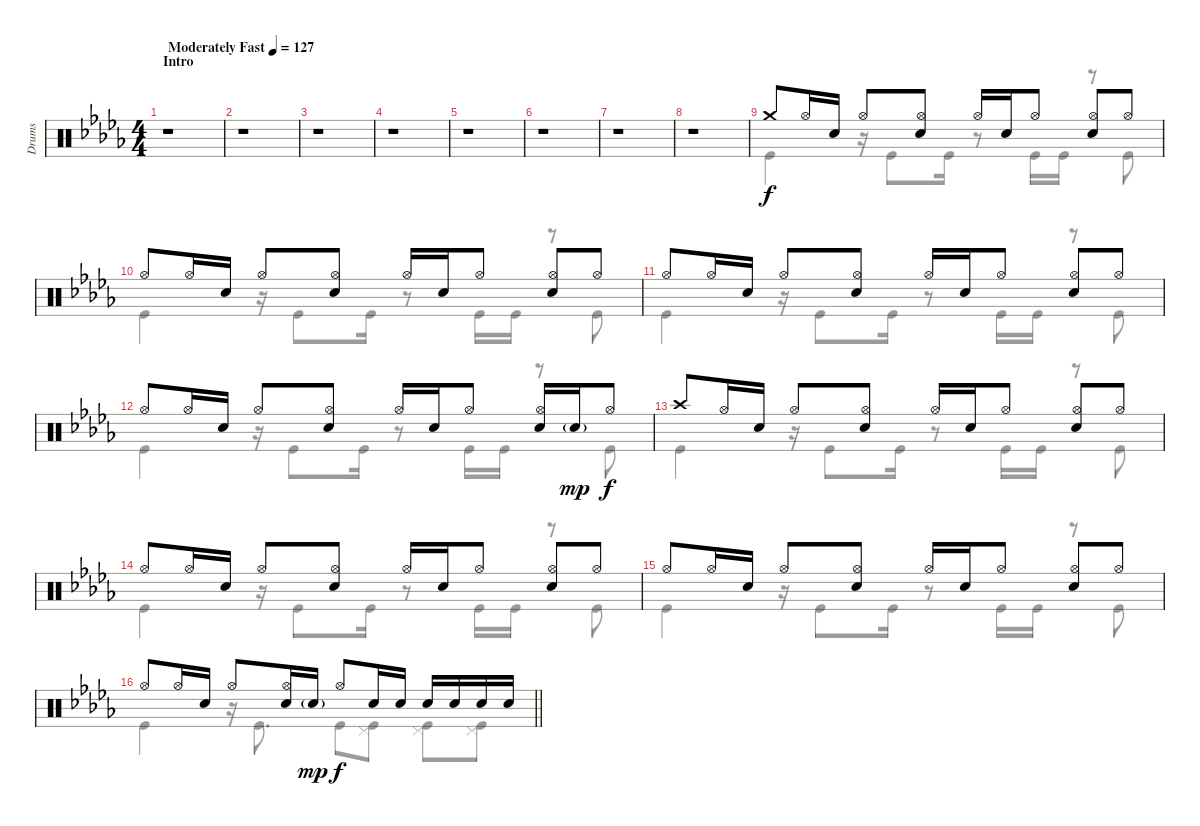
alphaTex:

\track ("Drums" "Drums") {instrument percussion}
\staff {score}
\articulation defaults
\voice
\ts (4 4)
\section ("" "Intro")
\tempo (127 "Moderately Fast")
\clef neutral
\ks bbminor
r.1{dy f} |
r.1 |
r.1 |
r.1 |
r.1 |
r.1 |
r.1 |
r.1 |
"Crash medium (hit)".8 "Hi-Hat (open)".16 "Electric Snare (hit)".16 "Hi-Hat (open)".8 ("Hi-Hat (open)" "Electric Snare (hit)").8 "Hi-Hat (open)".16 "Electric Snare (hit)".16 "Hi-Hat (open)".8 ("Hi-Hat (open)" "Electric Snare (hit)").8 "Hi-Hat (open)".8 |
"Hi-Hat (open)".8 "Hi-Hat (open)".16 "Electric Snare (hit)".16 "Hi-Hat (open)".8 ("Hi-Hat (open)" "Electric Snare (hit)").8 "Hi-Hat (open)".16 "Electric Snare (hit)".16 "Hi-Hat (open)".8 ("Hi-Hat (open)" "Electric Snare (hit)").8 "Hi-Hat (open)".8 |
"Hi-Hat (open)".8 "Hi-Hat (open)".16 "Electric Snare (hit)".16 "Hi-Hat (open)".8 ("Hi-Hat (open)" "Electric Snare (hit)").8 "Hi-Hat (open)".16 "Electric Snare (hit)".16 "Hi-Hat (open)".8 ("Hi-Hat (open)" "Electric Snare (hit)").8 "Hi-Hat (open)".8 |
"Hi-Hat (open)".8 "Hi-Hat (open)".16 "Electric Snare (hit)".16 "Hi-Hat (open)".8 ("Hi-Hat (open)" "Electric Snare (hit)").8 "Hi-Hat (open)".16 "Electric Snare (hit)".16 "Hi-Hat (open)".8 ("Hi-Hat (open)" "Electric Snare (hit)").16 "Electric Snare (hit)"{g}.16{dy mp} "Hi-Hat (open)".8{dy f} |
"Crash high (hit)".8 "Hi-Hat (open)".16 "Electric Snare (hit)".16 "Hi-Hat (open)".8 ("Hi-Hat (open)" "Electric Snare (hit)").8 "Hi-Hat (open)".16 "Electric Snare (hit)".16 "Hi-Hat (open)".8 ("Hi-Hat (open)" "Electric Snare (hit)").8 "Hi-Hat (open)".8 |
"Hi-Hat (open)".8 "Hi-Hat (open)".16 "Electric Snare (hit)".16 "Hi-Hat (open)".8 ("Hi-Hat (open)" "Electric Snare (hit)").8 "Hi-Hat (open)".16 "Electric Snare (hit)".16 "Hi-Hat (open)".8 ("Hi-Hat (open)" "Electric Snare (hit)").8 "Hi-Hat (open)".8 |
"Hi-Hat (open)".8 "Hi-Hat (open)".16 "Electric Snare (hit)".16 "Hi-Hat (open)".8 ("Hi-Hat (open)" "Electric Snare (hit)").8 "Hi-Hat (open)".16 "Electric Snare (hit)".16 "Hi-Hat (open)".8 ("Hi-Hat (open)" "Electric Snare (hit)").8 "Hi-Hat (open)".8 |
\barLineRight lightlight "Hi-Hat (open)".8 "Hi-Hat (open)".16 "Electric Snare (hit)".16 "Hi-Hat (open)".8
("Hi-Hat (open)" "Electric Snare (hit)").16 "Electric Snare (hit)"{g}.16{dy mp} "Hi-Hat (open)".8{dy f} "Electric Snare (hit)".16 "Electric Snare (hit)".16 "Electric Snare (hit)".16 "Electric Snare (hit)".16 "Electric Snare (hit)".16 "Electric Snare (hit)".16
\voice
\clef neutral
\ottava regular
\simile none
\ks bbminor
r.1{dy f} |
r.1 |
r.1 |
r.1 |
r.1 |
r.1 |
r.1 |
r.1 |
"Kick (hit)".4 r.16 "Kick (hit)".8 "Kick (hit)".16 r.8 "Kick (hit)".16 "Kick (hit)".16 r.8 "Kick (hit)".8 |
"Kick (hit)".4 r.16 "Kick (hit)".8 "Kick (hit)".16 r.8 "Kick (hit)".16 "Kick (hit)".16 r.8 "Kick (hit)".8 |
"Kick (hit)".4 r.16 "Kick (hit)".8 "Kick (hit)".16 r.8 "Kick (hit)".16 "Kick (hit)".16 r.8 "Kick (hit)".8 |
"Kick (hit)".4 r.16 "Kick (hit)".8 "Kick (hit)".16 r.8 "Kick (hit)".16 "Kick (hit)".16 r.8 "Kick (hit)".8 |
"Kick (hit)".4 r.16 "Kick (hit)".8 "Kick (hit)".16 r.8 "Kick (hit)".16 "Kick (hit)".16 r.8 "Kick (hit)".8 |
"Kick (hit)".4 r.16 "Kick (hit)".8 "Kick (hit)".16 r.8 "Kick (hit)".16 "Kick (hit)".16 r.8 "Kick (hit)".8 |
"Kick (hit)".4 r.16 "Kick (hit)".8 "Kick (hit)".16 r.8 "Kick (hit)".16 "Kick (hit)".16 r.8 "Kick (hit)".8 |
\barLineRight lightlight "Kick (hit)".4
r.16 "Kick (hit)".8{d} "Kick (hit)".8 ("Pedal Hi-Hat (hit)" "Kick (hit)").8 ("Pedal Hi-Hat (hit)" "Kick (hit)").8 ("Pedal Hi-Hat (hit)" "Kick (hit)").8
